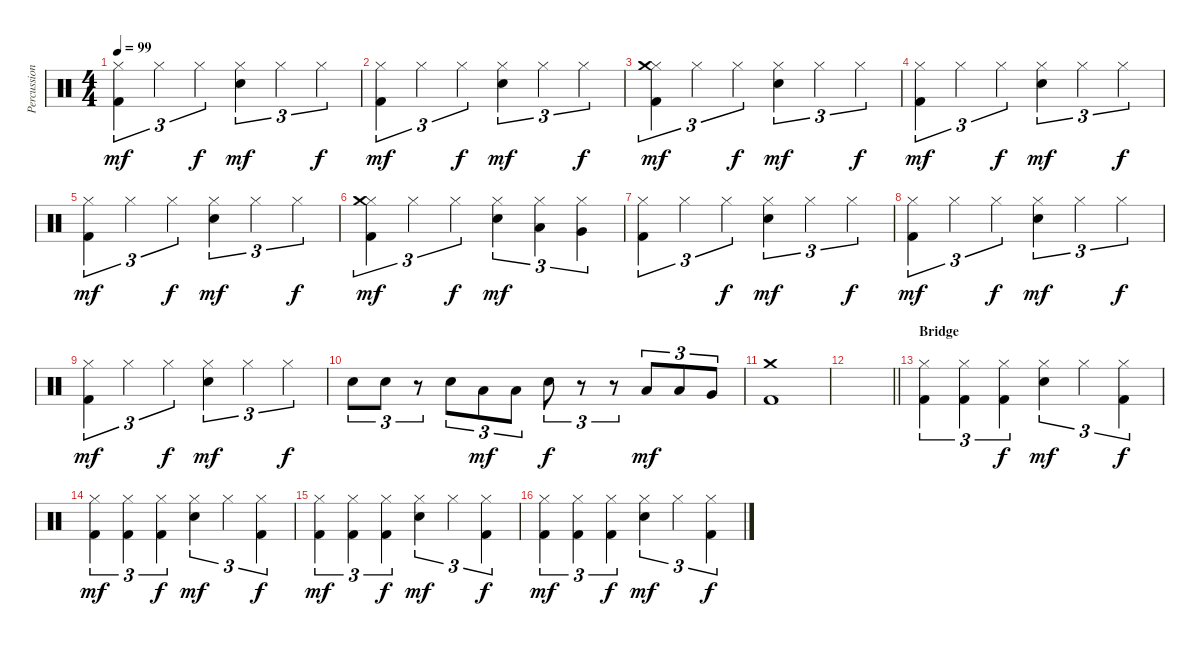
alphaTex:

\track ("Percussion" "Percussion") {instrument percussion}
\staff {score}
\articulation defaults
\ts (4 4)
\tempo 99
\clef neutral
\ks c
("Hi-Hat (closed)" "Kick (hit) 2").4{tu (3 2) dy mf} "Hi-Hat (closed)".4{tu (3 2)} "Hi-Hat (closed)".4{tu (3 2) dy f} ("Hi-Hat (closed)" "Electric Snare (hit)").4{tu (3 2) dy mf} "Hi-Hat (closed)".4{tu (3 2)} "Hi-Hat (closed)".4{tu (3 2) dy f} |
("Hi-Hat (closed)" "Kick (hit) 2").4{tu (3 2) dy mf} "Hi-Hat (closed)".4{tu (3 2)} "Hi-Hat (closed)".4{tu (3 2) dy f} ("Hi-Hat (closed)" "Electric Snare (hit)").4{tu (3 2) dy mf} "Hi-Hat (closed)".4{tu (3 2)} "Hi-Hat (closed)".4{tu (3 2) dy f} |
("Hi-Hat (closed)" "Crash medium (hit)" "Kick (hit) 2").4{tu (3 2) dy mf} "Hi-Hat (closed)".4{tu (3 2)} "Hi-Hat (closed)".4{tu (3 2) dy f} ("Hi-Hat (closed)" "Electric Snare (hit)").4{tu (3 2) dy mf} "Hi-Hat (closed)".4{tu (3 2)} "Hi-Hat (closed)".4{tu (3 2) dy f} |
("Hi-Hat (closed)" "Kick (hit) 2").4{tu (3 2) dy mf} "Hi-Hat (closed)".4{tu (3 2)} "Hi-Hat (closed)".4{tu (3 2) dy f} ("Hi-Hat (closed)" "Electric Snare (hit)").4{tu (3 2) dy mf} "Hi-Hat (closed)".4{tu (3 2)} "Hi-Hat (closed)".4{tu (3 2) dy f} |
("Hi-Hat (closed)" "Kick (hit) 2").4{tu (3 2) dy mf} "Hi-Hat (closed)".4{tu (3 2)} "Hi-Hat (closed)".4{tu (3 2) dy f} ("Hi-Hat (closed)" "Electric Snare (hit)").4{tu (3 2) dy mf} "Hi-Hat (closed)".4{tu (3 2)} "Hi-Hat (closed)".4{tu (3 2) dy f} |
("Hi-Hat (closed)" "Crash medium (hit)" "Kick (hit) 2").4{tu (3 2) dy mf} "Hi-Hat (closed)".4{tu (3 2)} "Hi-Hat (closed)".4{tu (3 2) dy f} ("Hi-Hat (closed)" "Electric Snare (hit)").4{tu (3 2) dy mf} ("Hi-Hat (closed)" "Low Tom (hit)").4{tu (3 2)} ("Hi-Hat (closed)" "Very Low Tom (hit)").4{tu (3 2)} |
("Hi-Hat (closed)" "Kick (hit) 2").4{tu (3 2)} "Hi-Hat (closed)".4{tu (3 2)} "Hi-Hat (closed)".4{tu (3 2) dy f} ("Hi-Hat (closed)" "Electric Snare (hit)").4{tu (3 2) dy mf} "Hi-Hat (closed)".4{tu (3 2)} "Hi-Hat (closed)".4{tu (3 2) dy f} |
("Hi-Hat (closed)" "Kick (hit) 2").4{tu (3 2) dy mf} "Hi-Hat (closed)".4{tu (3 2)} "Hi-Hat (closed)".4{tu (3 2) dy f} ("Hi-Hat (closed)" "Electric Snare (hit)").4{tu (3 2) dy mf} "Hi-Hat (closed)".4{tu (3 2)} "Hi-Hat (closed)".4{tu (3 2) dy f} |
("Hi-Hat (closed)" "Kick (hit) 2").4{tu (3 2) dy mf} "Hi-Hat (closed)".4{tu (3 2)} "Hi-Hat (closed)".4{tu (3 2) dy f} ("Hi-Hat (closed)" "Electric Snare (hit)").4{tu (3 2) dy mf} "Hi-Hat (closed)".4{tu (3 2)} "Hi-Hat (closed)".4{tu (3 2) dy f} |
"Electric Snare (hit)".8{tu (3 2)} "Electric Snare (hit)".8{tu (3 2)} r.8{tu (3 2)} "Electric Snare (hit)".8{tu (3 2)} "Low Tom (hit)".8{tu (3 2) dy mf} "Low Tom (hit)".8{tu (3 2)} "Electric Snare (hit)".8{tu (3 2) dy f} r.8{tu (3 2)} r.8{tu (3 2)} "Low Tom (hit)".8{tu (3 2) dy mf} "Low Tom (hit)".8{tu (3 2)} "Very Low Tom (hit)".8{tu (3 2)} |
("Crash medium (hit)" "Kick (hit) 2").1 |
\barLineRight lightlight
|
\section ("" "Bridge")
("Hi-Hat (closed)" "Kick (hit) 2").4{tu (3 2)} ("Hi-Hat (closed)" "Kick (hit) 2").4{tu (3 2)} ("Hi-Hat (closed)" "Kick (hit) 2").4{tu (3 2) dy f} ("Hi-Hat (closed)" "Electric Snare (hit)").4{tu (3 2) dy mf} "Hi-Hat (closed)".4{tu (3 2)} ("Hi-Hat (closed)" "Kick (hit) 2").4{tu (3 2) dy f} |
("Hi-Hat (closed)" "Kick (hit) 2").4{tu (3 2) dy mf} ("Hi-Hat (closed)" "Kick (hit) 2").4{tu (3 2)} ("Hi-Hat (closed)" "Kick (hit) 2").4{tu (3 2) dy f} ("Hi-Hat (closed)" "Electric Snare (hit)").4{tu (3 2) dy mf} "Hi-Hat (closed)".4{tu (3 2)} ("Hi-Hat (closed)" "Kick (hit) 2").4{tu (3 2) dy f} |
("Hi-Hat (closed)" "Kick (hit) 2").4{tu (3 2) dy mf} ("Hi-Hat (closed)" "Kick (hit) 2").4{tu (3 2)} ("Hi-Hat (closed)" "Kick (hit) 2").4{tu (3 2) dy f} ("Hi-Hat (closed)" "Electric Snare (hit)").4{tu (3 2) dy mf} "Hi-Hat (closed)".4{tu (3 2)} ("Hi-Hat (closed)" "Kick (hit) 2").4{tu (3 2) dy f} |
("Hi-Hat (closed)" "Kick (hit) 2").4{tu (3 2) dy mf} ("Hi-Hat (closed)" "Kick (hit) 2").4{tu (3 2)} ("Hi-Hat (closed)" "Kick (hit) 2").4{tu (3 2) dy f} ("Hi-Hat (closed)" "Electric Snare (hit)").4{tu (3 2) dy mf} "Hi-Hat (closed)".4{tu (3 2)} ("Hi-Hat (closed)" "Kick (hit) 2").4{tu (3 2) dy f}
